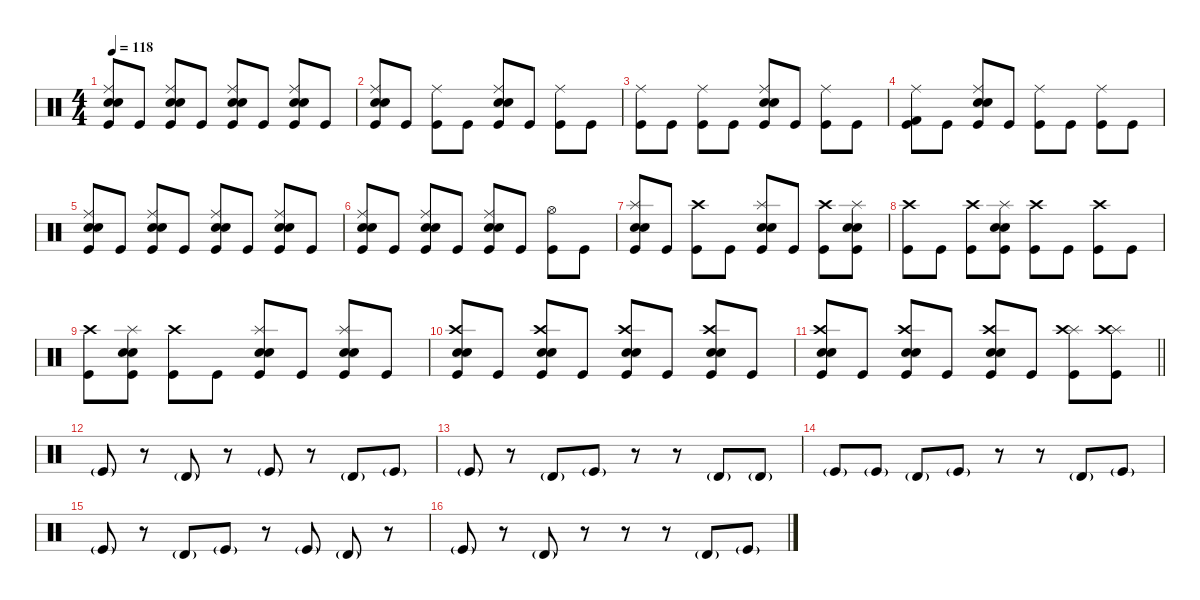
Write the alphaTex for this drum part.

\defaultSystemsLayout 4
\hideDynamics
\bracketExtendMode nobrackets
\singleTrackTrackNamePolicy hidden
\multiTrackTrackNamePolicy hidden
\firstSystemTrackNameMode fullname
\otherSystemsTrackNameOrientation horizontal
\track ("Drums" "drm.") {instrument percussion}
\staff {score}
\articulation defaults
\ts (4 4)
\tempo 118
\clef neutral
\ks c
("Ride (middle)" "Snare (hit) 2" "Snare (hit) 2" "Kick (hit)").8{dy f beam Up} "Kick (hit)".8{beam Up} ("Ride (middle)" "Snare (hit) 2" "Snare (hit) 2" "Kick (hit)").8{beam Up} "Kick (hit)".8{beam Up} ("Ride (middle)" "Snare (hit) 2" "Snare (hit) 2" "Kick (hit)").8{beam Up} "Kick (hit)".8{beam Up} ("Ride (middle)" "Snare (hit) 2" "Snare (hit) 2" "Kick (hit)").8{beam Up} "Kick (hit)".8{beam Up} |
("Ride (middle)" "Snare (hit) 2" "Snare (hit) 2" "Kick (hit)").8{beam Up} "Kick (hit)".8{beam Up} ("Ride (middle)" "Kick (hit)").8{beam Down} "Kick (hit)".8{beam Down} ("Ride (middle)" "Snare (hit) 2" "Snare (hit) 2" "Kick (hit)").8{beam Up} "Kick (hit)".8{beam Up} ("Ride (middle)" "Kick (hit)").8{beam Down} "Kick (hit)".8{beam Down} |
("Ride (middle)" "Kick (hit)").8{beam Down} "Kick (hit)".8{beam Down} ("Ride (middle)" "Kick (hit)").8{beam Down} "Kick (hit)".8{beam Down} ("Ride (middle)" "Snare (hit) 2" "Snare (hit) 2" "Kick (hit)").8{beam Up} "Kick (hit)".8{beam Up} ("Ride (middle)" "Kick (hit)").8{beam Down} "Kick (hit)".8{beam Down} |
("Ride (middle)" "Kick (hit) 2" "Kick (hit)").8{beam Down} "Kick (hit)".8{beam Down} ("Ride (middle)" "Snare (hit) 2" "Snare (hit) 2" "Kick (hit)").8{beam Up} "Kick (hit)".8{beam Up} ("Ride (middle)" "Kick (hit)").8{beam Down} "Kick (hit)".8{beam Down} ("Ride (middle)" "Kick (hit)").8{beam Down} "Kick (hit)".8{beam Down} |
("Ride (middle)" "Snare (hit) 2" "Snare (hit) 2" "Kick (hit)").8{beam Up} "Kick (hit)".8{beam Up} ("Ride (middle)" "Snare (hit) 2" "Snare (hit) 2" "Kick (hit)").8{beam Up} "Kick (hit)".8{beam Up} ("Ride (middle)" "Snare (hit) 2" "Snare (hit) 2" "Kick (hit)").8{beam Up} "Kick (hit)".8{beam Up} ("Ride (middle)" "Snare (hit) 2" "Snare (hit) 2" "Kick (hit)").8{beam Up} "Kick (hit)".8{beam Up} |
("Ride (middle)" "Snare (hit) 2" "Snare (hit) 2" "Kick (hit)").8{beam Up} "Kick (hit)".8{beam Up} ("Ride (middle)" "Snare (hit) 2" "Snare (hit) 2" "Kick (hit)").8{beam Up} "Kick (hit)".8{beam Up} ("Ride (middle)" "Snare (hit) 2" "Snare (hit) 2" "Kick (hit)").8{beam Up} "Kick (hit)".8{beam Up} ("Hi-Hat (open)" "Kick (hit)").8{beam Down} "Kick (hit)".8{beam Down} |
("Splash (hit)" "Snare (hit) 2" "Snare (hit) 2" "Kick (hit)").8{beam Up} "Kick (hit)".8{beam Up} ("Crash high (hit)" "Kick (hit)").8{dy mf beam Down} "Kick (hit)".8{dy f beam Down} ("Splash (hit)" "Snare (hit) 2" "Snare (hit) 2" "Kick (hit)").8{beam Up} "Kick (hit)".8{beam Up} ("Crash high (hit)" "Kick (hit)").8{dy mf beam Down} ("Splash (hit)" "Snare (hit) 2" "Snare (hit) 2" "Kick (hit)").8{dy f beam Down} |
("Crash high (hit)" "Kick (hit)").8{dy mf beam Down} "Kick (hit)".8{dy f beam Down} ("Crash high (hit)" "Kick (hit)").8{dy mf beam Down} ("Splash (hit)" "Snare (hit) 2" "Snare (hit) 2" "Kick (hit)").8{dy f beam Down} ("Crash high (hit)" "Kick (hit)").8{dy mf beam Down} "Kick (hit)".8{dy f beam Down} ("Crash high (hit)" "Kick (hit)").8{dy mf beam Down} "Kick (hit)".8{dy f beam Down} |
("Crash high (hit)" "Kick (hit)").8{dy mf beam Down} ("Splash (hit)" "Snare (hit) 2" "Snare (hit) 2" "Kick (hit)").8{dy f beam Down} ("Crash high (hit)" "Kick (hit)").8{dy mf beam Down} "Kick (hit)".8{dy f beam Down} ("Splash (hit)" "Snare (hit) 2" "Snare (hit) 2" "Kick (hit)").8{beam Up} "Kick (hit)".8{beam Up} ("Splash (hit)" "Snare (hit) 2" "Snare (hit) 2" "Kick (hit)").8{beam Up} "Kick (hit)".8{beam Up} |
("Crash high (hit)" "Snare (hit) 2" "Snare (hit) 2" "Kick (hit)").8{dy mf beam Up} "Kick (hit)".8{dy f beam Up} ("Crash high (hit)" "Snare (hit) 2" "Snare (hit) 2" "Kick (hit)").8{dy mf beam Up} "Kick (hit)".8{dy f beam Up} ("Crash high (hit)" "Snare (hit) 2" "Snare (hit) 2" "Kick (hit)").8{dy mf beam Up} "Kick (hit)".8{dy f beam Up} ("Crash high (hit)" "Snare (hit) 2" "Snare (hit) 2" "Kick (hit)").8{dy mf beam Up} "Kick (hit)".8{dy f beam Up} |
\barLineRight lightlight
("Crash high (hit)" "Snare (hit) 2" "Snare (hit) 2" "Kick (hit)").8{dy mf beam Up} "Kick (hit)".8{dy f beam Up} ("Crash high (hit)" "Snare (hit) 2" "Snare (hit) 2" "Kick (hit)").8{dy mf beam Up} "Kick (hit)".8{dy f beam Up} ("Crash high (hit)" "Snare (hit) 2" "Snare (hit) 2" "Kick (hit)").8{dy mf beam Up} "Kick (hit)".8{dy f beam Up} ("Splash (hit)" "Crash high (hit)" "Kick (hit)").8{beam Down} ("Splash (hit)" "Crash high (hit)" "Kick (hit)").8{beam Down} |
"Kick (hit)"{g}.8{dy mf beam Up} r.8{beam Up} "Timbale high (hit)"{g}.8{beam Up} r.8{beam Up} "Kick (hit)"{g}.8{beam Up} r.8{beam Up} "Timbale high (hit)"{g}.8{beam Up} "Kick (hit)"{g}.8{beam Up} |
"Kick (hit)"{g}.8{beam Up} r.8{beam Up} "Timbale high (hit)"{g}.8{beam Up} "Kick (hit)"{g}.8{beam Up} r.8{beam Up} r.8{beam Up} "Timbale high (hit)"{g}.8{beam Up} "Timbale high (hit)"{g}.8{beam Up} |
"Kick (hit)"{g}.8{beam Up} "Kick (hit)"{g}.8{beam Up} "Timbale high (hit)"{g}.8{beam Up} "Kick (hit)"{g}.8{beam Up} r.8{beam Up} r.8{beam Up} "Timbale high (hit)"{g}.8{beam Up} "Kick (hit)"{g}.8{beam Up} |
"Kick (hit)"{g}.8{beam Up} r.8{beam Up} "Timbale high (hit)"{g}.8{beam Up} "Kick (hit)"{g}.8{beam Up} r.8{beam Up} "Kick (hit)"{g}.8{beam Up} "Timbale high (hit)"{g}.8{beam Up} r.8{beam Up} |
"Kick (hit)"{g}.8{beam Up} r.8{beam Up} "Timbale high (hit)"{g}.8{beam Up} r.8{beam Up} r.8{beam Up} r.8{beam Up} "Timbale high (hit)"{g}.8{beam Up} "Kick (hit)"{g}.8{beam Up}
